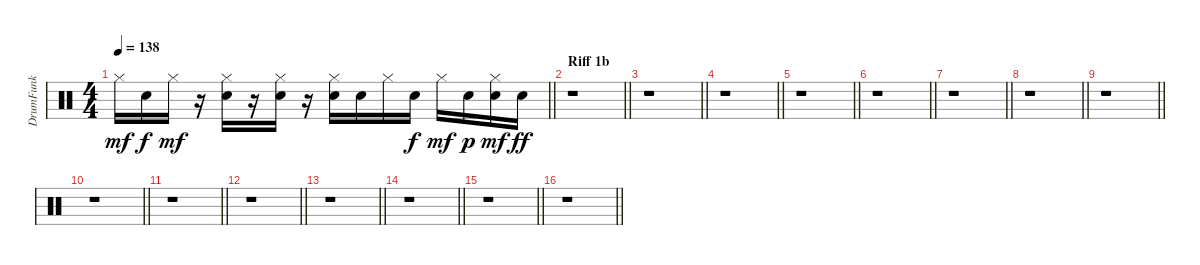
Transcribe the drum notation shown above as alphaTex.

\track ("DrumFunk" "DrumFunk") {instrument percussion}
\staff {score}
\articulation defaults
\ts (4 4)
\tempo 138
\clef neutral
\barLineRight lightlight
\ks c "Hi-Hat (closed)".16{dy mf} "Snare (hit) 2".16{dy f} "Hi-Hat (closed)".16{dy mf}
r.16 ("Snare (hit) 2" "Hi-Hat (closed)").16 r.16 ("Hand Clap (hit)" "Hi-Hat (closed)").16 r.16 ("Snare (hit) 2" "Hi-Hat (closed)").16 "Snare (hit) 2".16 "Hi-Hat (closed)".16 "Snare (hit) 2".16{dy f} "Hi-Hat (closed)".16{dy mf} "Snare (hit) 2".16{dy p} ("Snare (hit) 2" "Hi-Hat (closed)").16{dy mf} "Snare (hit) 2".16{dy ff} |
\section ("" "Riff 1b")
\barLineRight lightlight
r.1 |
\barLineRight lightlight
r.1 |
\barLineRight lightlight
r.1 |
\barLineRight lightlight
r.1 |
\barLineRight lightlight
r.1 |
\barLineRight lightlight
r.1 |
\barLineRight lightlight
r.1 |
\barLineRight lightlight
r.1 |
\barLineRight lightlight
r.1 |
\barLineRight lightlight
r.1 |
\barLineRight lightlight
r.1 |
\barLineRight lightlight
r.1 |
\barLineRight lightlight
r.1 |
\barLineRight lightlight
r.1 |
\barLineRight lightlight
r.1
